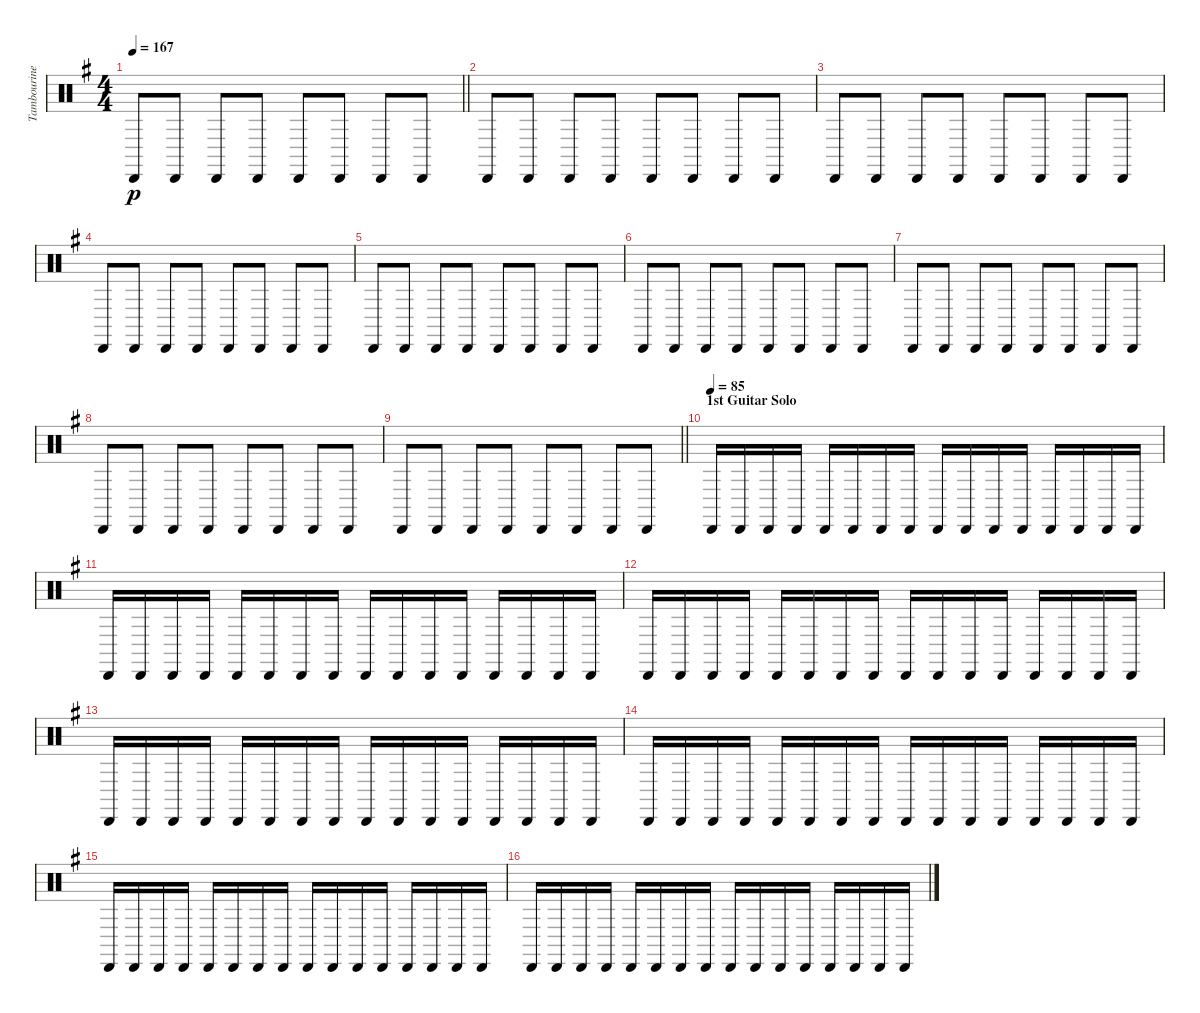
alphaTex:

\track ("Tambourine" "Tambourine") {instrument percussion}
\staff {score}
\articulation defaults
\ts (4 4)
\tempo 167
\clef neutral
\barLineRight lightlight
\ks eminor "Cabasa (hit)".8{dy p} "Cabasa (hit)".8 "Cabasa (hit)".8 "Cabasa (hit)".8 "Cabasa (hit)".8 "Cabasa (hit)".8 "Cabasa (hit)".8 "Cabasa (hit)".8
|
"Cabasa (hit)".8 "Cabasa (hit)".8 "Cabasa (hit)".8 "Cabasa (hit)".8 "Cabasa (hit)".8 "Cabasa (hit)".8 "Cabasa (hit)".8 "Cabasa (hit)".8 |
"Cabasa (hit)".8 "Cabasa (hit)".8 "Cabasa (hit)".8 "Cabasa (hit)".8 "Cabasa (hit)".8 "Cabasa (hit)".8 "Cabasa (hit)".8 "Cabasa (hit)".8 |
"Cabasa (hit)".8 "Cabasa (hit)".8 "Cabasa (hit)".8 "Cabasa (hit)".8 "Cabasa (hit)".8 "Cabasa (hit)".8 "Cabasa (hit)".8 "Cabasa (hit)".8 |
"Cabasa (hit)".8 "Cabasa (hit)".8 "Cabasa (hit)".8 "Cabasa (hit)".8 "Cabasa (hit)".8 "Cabasa (hit)".8 "Cabasa (hit)".8 "Cabasa (hit)".8 |
"Cabasa (hit)".8 "Cabasa (hit)".8 "Cabasa (hit)".8 "Cabasa (hit)".8 "Cabasa (hit)".8 "Cabasa (hit)".8 "Cabasa (hit)".8 "Cabasa (hit)".8 |
"Cabasa (hit)".8 "Cabasa (hit)".8 "Cabasa (hit)".8 "Cabasa (hit)".8 "Cabasa (hit)".8 "Cabasa (hit)".8 "Cabasa (hit)".8 "Cabasa (hit)".8 |
"Cabasa (hit)".8 "Cabasa (hit)".8 "Cabasa (hit)".8 "Cabasa (hit)".8 "Cabasa (hit)".8 "Cabasa (hit)".8 "Cabasa (hit)".8 "Cabasa (hit)".8 |
\barLineRight lightlight "Cabasa (hit)".8 "Cabasa (hit)".8 "Cabasa (hit)".8 "Cabasa (hit)".8 "Cabasa (hit)".8 "Cabasa (hit)".8 "Cabasa (hit)".8 "Cabasa (hit)".8
|
\section ("" "1st Guitar Solo")
\tempo (85)
"Cabasa (hit)".16 "Cabasa (hit)".16 "Cabasa (hit)".16 "Cabasa (hit)".16 "Cabasa (hit)".16 "Cabasa (hit)".16 "Cabasa (hit)".16 "Cabasa (hit)".16 "Cabasa (hit)".16 "Cabasa (hit)".16 "Cabasa (hit)".16 "Cabasa (hit)".16 "Cabasa (hit)".16 "Cabasa (hit)".16 "Cabasa (hit)".16 "Cabasa (hit)".16 |
"Cabasa (hit)".16 "Cabasa (hit)".16 "Cabasa (hit)".16 "Cabasa (hit)".16 "Cabasa (hit)".16 "Cabasa (hit)".16 "Cabasa (hit)".16 "Cabasa (hit)".16 "Cabasa (hit)".16 "Cabasa (hit)".16 "Cabasa (hit)".16 "Cabasa (hit)".16 "Cabasa (hit)".16 "Cabasa (hit)".16 "Cabasa (hit)".16 "Cabasa (hit)".16 |
"Cabasa (hit)".16 "Cabasa (hit)".16 "Cabasa (hit)".16 "Cabasa (hit)".16 "Cabasa (hit)".16 "Cabasa (hit)".16 "Cabasa (hit)".16 "Cabasa (hit)".16 "Cabasa (hit)".16 "Cabasa (hit)".16 "Cabasa (hit)".16 "Cabasa (hit)".16 "Cabasa (hit)".16 "Cabasa (hit)".16 "Cabasa (hit)".16 "Cabasa (hit)".16 |
"Cabasa (hit)".16 "Cabasa (hit)".16 "Cabasa (hit)".16 "Cabasa (hit)".16 "Cabasa (hit)".16 "Cabasa (hit)".16 "Cabasa (hit)".16 "Cabasa (hit)".16 "Cabasa (hit)".16 "Cabasa (hit)".16 "Cabasa (hit)".16 "Cabasa (hit)".16 "Cabasa (hit)".16 "Cabasa (hit)".16 "Cabasa (hit)".16 "Cabasa (hit)".16 |
"Cabasa (hit)".16 "Cabasa (hit)".16 "Cabasa (hit)".16 "Cabasa (hit)".16 "Cabasa (hit)".16 "Cabasa (hit)".16 "Cabasa (hit)".16 "Cabasa (hit)".16 "Cabasa (hit)".16 "Cabasa (hit)".16 "Cabasa (hit)".16 "Cabasa (hit)".16 "Cabasa (hit)".16 "Cabasa (hit)".16 "Cabasa (hit)".16 "Cabasa (hit)".16 |
"Cabasa (hit)".16 "Cabasa (hit)".16 "Cabasa (hit)".16 "Cabasa (hit)".16 "Cabasa (hit)".16 "Cabasa (hit)".16 "Cabasa (hit)".16 "Cabasa (hit)".16 "Cabasa (hit)".16 "Cabasa (hit)".16 "Cabasa (hit)".16 "Cabasa (hit)".16 "Cabasa (hit)".16 "Cabasa (hit)".16 "Cabasa (hit)".16 "Cabasa (hit)".16 |
"Cabasa (hit)".16 "Cabasa (hit)".16 "Cabasa (hit)".16 "Cabasa (hit)".16 "Cabasa (hit)".16 "Cabasa (hit)".16 "Cabasa (hit)".16 "Cabasa (hit)".16 "Cabasa (hit)".16 "Cabasa (hit)".16 "Cabasa (hit)".16 "Cabasa (hit)".16 "Cabasa (hit)".16 "Cabasa (hit)".16 "Cabasa (hit)".16 "Cabasa (hit)".16
